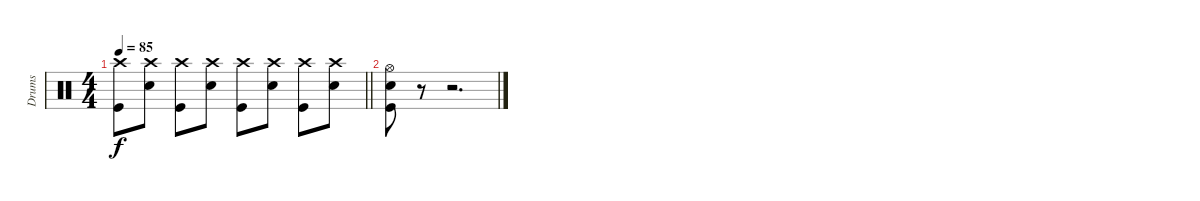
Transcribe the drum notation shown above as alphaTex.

\track ("Drums" "Drums") {instrument percussion}
\staff {score}
\articulation defaults
\ts (4 4)
\tempo 85
\clef neutral
\barLineRight lightlight
\ks c
("Kick (hit)" "Crash high (hit)").8{dy f} ("Electric Snare (hit)" "Crash high (hit)").8 ("Kick (hit)" "Crash high (hit)").8 ("Electric Snare (hit)" "Crash high (hit)").8 ("Kick (hit)" "Crash high (hit)").8 ("Electric Snare (hit)" "Crash high (hit)").8 ("Kick (hit)" "Crash high (hit)").8 ("Electric Snare (hit)" "Crash high (hit)").8 |
("Kick (hit)" "Electric Snare (hit)" "Hi-Hat (open)").8 r.8 r.2{d}
